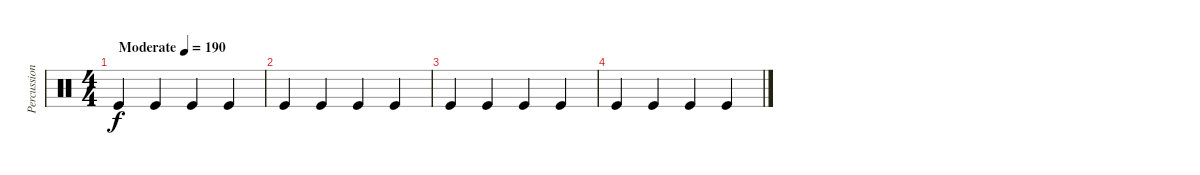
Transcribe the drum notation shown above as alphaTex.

\track ("Percussion" "Percussion") {instrument percussion}
\staff {score}
\articulation defaults
\ts (4 4)
\tempo (190 "Moderate")
\clef neutral
\ks c "Kick (hit)".4{dy f} "Kick (hit)".4 "Kick (hit)".4 "Kick (hit)".4
|
"Kick (hit)".4 "Kick (hit)".4 "Kick (hit)".4 "Kick (hit)".4 |
"Kick (hit)".4 "Kick (hit)".4 "Kick (hit)".4 "Kick (hit)".4 |
"Kick (hit)".4 "Kick (hit)".4 "Kick (hit)".4 "Kick (hit)".4
